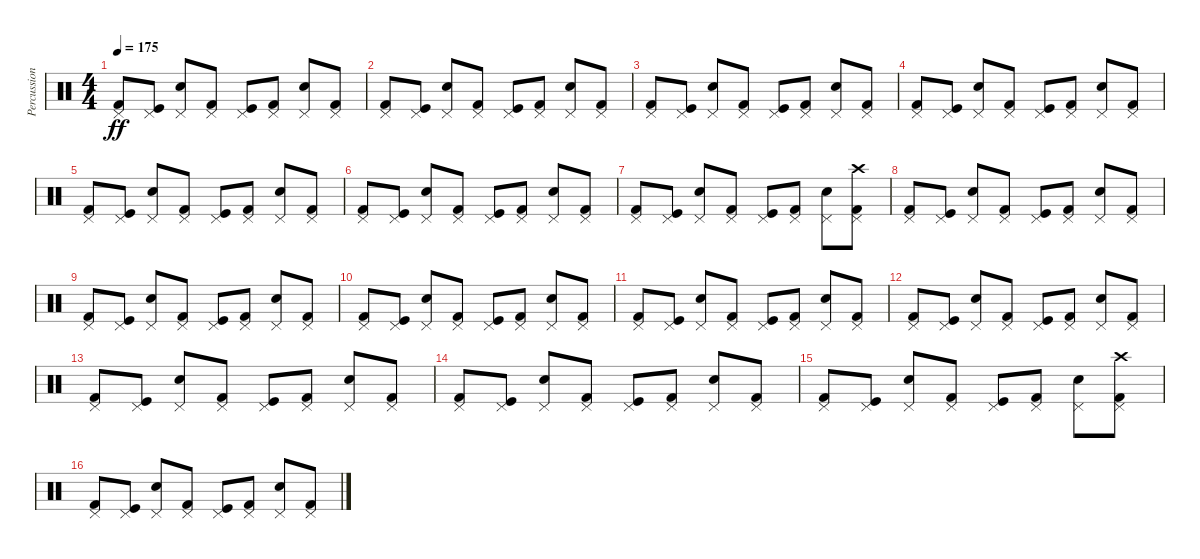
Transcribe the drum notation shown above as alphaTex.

\track ("Percussion (Karlo Žuliæ)" "Percussion") {instrument percussion}
\staff {score}
\articulation defaults
\ts (4 4)
\tempo 175
\clef neutral
\ks c
("Pedal Hi-Hat (hit)" "Kick (hit) 2").8{dy ff} ("Pedal Hi-Hat (hit)" "Kick (hit)").8 ("Pedal Hi-Hat (hit)" "Snare (hit) 2").8 ("Pedal Hi-Hat (hit)" "Kick (hit) 2").8 ("Pedal Hi-Hat (hit)" "Kick (hit)").8 ("Pedal Hi-Hat (hit)" "Kick (hit) 2").8 ("Pedal Hi-Hat (hit)" "Snare (hit) 2").8 ("Pedal Hi-Hat (hit)" "Kick (hit) 2").8 |
("Pedal Hi-Hat (hit)" "Kick (hit) 2").8 ("Pedal Hi-Hat (hit)" "Kick (hit)").8 ("Pedal Hi-Hat (hit)" "Snare (hit) 2").8 ("Pedal Hi-Hat (hit)" "Kick (hit) 2").8 ("Pedal Hi-Hat (hit)" "Kick (hit)").8 ("Pedal Hi-Hat (hit)" "Kick (hit) 2").8 ("Pedal Hi-Hat (hit)" "Snare (hit) 2").8 ("Pedal Hi-Hat (hit)" "Kick (hit) 2").8 |
("Pedal Hi-Hat (hit)" "Kick (hit) 2").8 ("Pedal Hi-Hat (hit)" "Kick (hit)").8 ("Pedal Hi-Hat (hit)" "Snare (hit) 2").8 ("Pedal Hi-Hat (hit)" "Kick (hit) 2").8 ("Pedal Hi-Hat (hit)" "Kick (hit)").8 ("Pedal Hi-Hat (hit)" "Kick (hit) 2").8 ("Pedal Hi-Hat (hit)" "Snare (hit) 2").8 ("Pedal Hi-Hat (hit)" "Kick (hit) 2").8 |
("Pedal Hi-Hat (hit)" "Kick (hit) 2").8 ("Pedal Hi-Hat (hit)" "Kick (hit)").8 ("Pedal Hi-Hat (hit)" "Snare (hit) 2").8 ("Pedal Hi-Hat (hit)" "Kick (hit) 2").8 ("Pedal Hi-Hat (hit)" "Kick (hit)").8 ("Pedal Hi-Hat (hit)" "Kick (hit) 2").8 ("Pedal Hi-Hat (hit)" "Snare (hit) 2").8 ("Pedal Hi-Hat (hit)" "Kick (hit) 2").8 |
("Pedal Hi-Hat (hit)" "Kick (hit) 2").8 ("Pedal Hi-Hat (hit)" "Kick (hit)").8 ("Pedal Hi-Hat (hit)" "Snare (hit) 2").8 ("Pedal Hi-Hat (hit)" "Kick (hit) 2").8 ("Pedal Hi-Hat (hit)" "Kick (hit)").8 ("Pedal Hi-Hat (hit)" "Kick (hit) 2").8 ("Pedal Hi-Hat (hit)" "Snare (hit) 2").8 ("Pedal Hi-Hat (hit)" "Kick (hit) 2").8 |
("Pedal Hi-Hat (hit)" "Kick (hit) 2").8 ("Pedal Hi-Hat (hit)" "Kick (hit)").8 ("Pedal Hi-Hat (hit)" "Snare (hit) 2").8 ("Pedal Hi-Hat (hit)" "Kick (hit) 2").8 ("Pedal Hi-Hat (hit)" "Kick (hit)").8 ("Pedal Hi-Hat (hit)" "Kick (hit) 2").8 ("Pedal Hi-Hat (hit)" "Snare (hit) 2").8 ("Pedal Hi-Hat (hit)" "Kick (hit) 2").8 |
("Pedal Hi-Hat (hit)" "Kick (hit) 2").8 ("Pedal Hi-Hat (hit)" "Kick (hit)").8 ("Pedal Hi-Hat (hit)" "Snare (hit) 2").8 ("Pedal Hi-Hat (hit)" "Kick (hit) 2").8 ("Pedal Hi-Hat (hit)" "Kick (hit)").8 ("Pedal Hi-Hat (hit)" "Kick (hit) 2").8 ("Pedal Hi-Hat (hit)" "Snare (hit) 2").8 ("Pedal Hi-Hat (hit)" "Kick (hit) 2" "Crash high (hit)").8 |
("Pedal Hi-Hat (hit)" "Kick (hit) 2").8 ("Pedal Hi-Hat (hit)" "Kick (hit)").8 ("Pedal Hi-Hat (hit)" "Snare (hit) 2").8 ("Pedal Hi-Hat (hit)" "Kick (hit) 2").8 ("Pedal Hi-Hat (hit)" "Kick (hit)").8 ("Pedal Hi-Hat (hit)" "Kick (hit) 2").8 ("Pedal Hi-Hat (hit)" "Snare (hit) 2").8 ("Pedal Hi-Hat (hit)" "Kick (hit) 2").8 |
("Pedal Hi-Hat (hit)" "Kick (hit) 2").8 ("Pedal Hi-Hat (hit)" "Kick (hit)").8 ("Pedal Hi-Hat (hit)" "Snare (hit) 2").8 ("Pedal Hi-Hat (hit)" "Kick (hit) 2").8 ("Pedal Hi-Hat (hit)" "Kick (hit)").8 ("Pedal Hi-Hat (hit)" "Kick (hit) 2").8 ("Pedal Hi-Hat (hit)" "Snare (hit) 2").8 ("Pedal Hi-Hat (hit)" "Kick (hit) 2").8 |
("Pedal Hi-Hat (hit)" "Kick (hit) 2").8 ("Pedal Hi-Hat (hit)" "Kick (hit)").8 ("Pedal Hi-Hat (hit)" "Snare (hit) 2").8 ("Pedal Hi-Hat (hit)" "Kick (hit) 2").8 ("Pedal Hi-Hat (hit)" "Kick (hit)").8 ("Pedal Hi-Hat (hit)" "Kick (hit) 2").8 ("Pedal Hi-Hat (hit)" "Snare (hit) 2").8 ("Pedal Hi-Hat (hit)" "Kick (hit) 2").8 |
("Pedal Hi-Hat (hit)" "Kick (hit) 2").8 ("Pedal Hi-Hat (hit)" "Kick (hit)").8 ("Pedal Hi-Hat (hit)" "Snare (hit) 2").8 ("Pedal Hi-Hat (hit)" "Kick (hit) 2").8 ("Pedal Hi-Hat (hit)" "Kick (hit)").8 ("Pedal Hi-Hat (hit)" "Kick (hit) 2").8 ("Pedal Hi-Hat (hit)" "Snare (hit) 2").8 ("Pedal Hi-Hat (hit)" "Kick (hit) 2").8 |
("Pedal Hi-Hat (hit)" "Kick (hit) 2").8 ("Pedal Hi-Hat (hit)" "Kick (hit)").8 ("Pedal Hi-Hat (hit)" "Snare (hit) 2").8 ("Pedal Hi-Hat (hit)" "Kick (hit) 2").8 ("Pedal Hi-Hat (hit)" "Kick (hit)").8 ("Pedal Hi-Hat (hit)" "Kick (hit) 2").8 ("Pedal Hi-Hat (hit)" "Snare (hit) 2").8 ("Pedal Hi-Hat (hit)" "Kick (hit) 2").8 |
("Pedal Hi-Hat (hit)" "Kick (hit) 2").8 ("Pedal Hi-Hat (hit)" "Kick (hit)").8 ("Pedal Hi-Hat (hit)" "Snare (hit) 2").8 ("Pedal Hi-Hat (hit)" "Kick (hit) 2").8 ("Pedal Hi-Hat (hit)" "Kick (hit)").8 ("Pedal Hi-Hat (hit)" "Kick (hit) 2").8 ("Pedal Hi-Hat (hit)" "Snare (hit) 2").8 ("Pedal Hi-Hat (hit)" "Kick (hit) 2").8 |
("Pedal Hi-Hat (hit)" "Kick (hit) 2").8 ("Pedal Hi-Hat (hit)" "Kick (hit)").8 ("Pedal Hi-Hat (hit)" "Snare (hit) 2").8 ("Pedal Hi-Hat (hit)" "Kick (hit) 2").8 ("Pedal Hi-Hat (hit)" "Kick (hit)").8 ("Pedal Hi-Hat (hit)" "Kick (hit) 2").8 ("Pedal Hi-Hat (hit)" "Snare (hit) 2").8 ("Pedal Hi-Hat (hit)" "Kick (hit) 2").8 |
("Pedal Hi-Hat (hit)" "Kick (hit) 2").8 ("Pedal Hi-Hat (hit)" "Kick (hit)").8 ("Pedal Hi-Hat (hit)" "Snare (hit) 2").8 ("Pedal Hi-Hat (hit)" "Kick (hit) 2").8 ("Pedal Hi-Hat (hit)" "Kick (hit)").8 ("Pedal Hi-Hat (hit)" "Kick (hit) 2").8 ("Pedal Hi-Hat (hit)" "Snare (hit) 2").8 ("Pedal Hi-Hat (hit)" "Kick (hit) 2" "Crash high (hit)").8 |
("Pedal Hi-Hat (hit)" "Kick (hit) 2").8 ("Pedal Hi-Hat (hit)" "Kick (hit)").8 ("Pedal Hi-Hat (hit)" "Snare (hit) 2").8 ("Pedal Hi-Hat (hit)" "Kick (hit) 2").8 ("Pedal Hi-Hat (hit)" "Kick (hit)").8 ("Pedal Hi-Hat (hit)" "Kick (hit) 2").8 ("Pedal Hi-Hat (hit)" "Snare (hit) 2").8 ("Pedal Hi-Hat (hit)" "Kick (hit) 2").8
